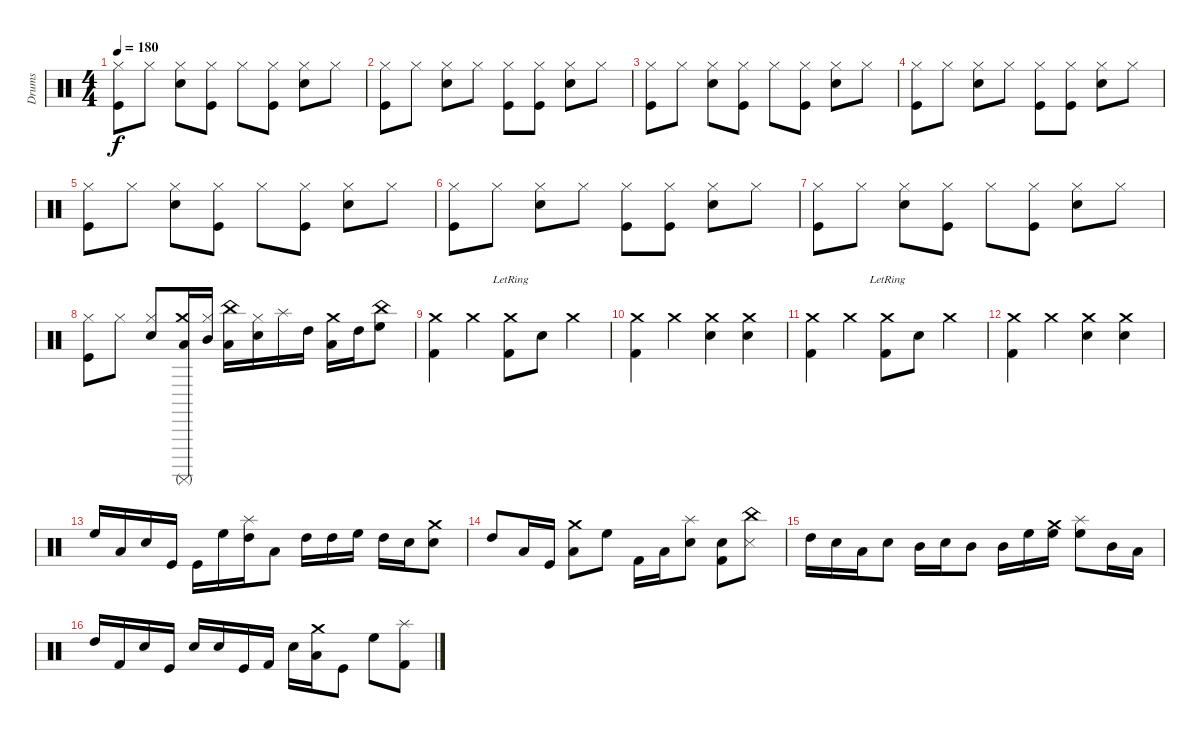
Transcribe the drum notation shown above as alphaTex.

\track ("Drums" "Drums") {instrument percussion}
\staff {score}
\articulation defaults
\ts (4 4)
\tempo 180
\clef neutral
\ks c
("Hi-Hat (closed)" "Kick (hit)").8{dy f} "Hi-Hat (closed)".8 ("Hi-Hat (closed)" "Snare (hit) 2").8 ("Hi-Hat (closed)" "Kick (hit)").8 "Hi-Hat (closed)".8 ("Hi-Hat (closed)" "Kick (hit)").8 ("Hi-Hat (closed)" "Snare (hit) 2").8 "Hi-Hat (closed)".8 |
("Hi-Hat (closed)" "Kick (hit)").8 "Hi-Hat (closed)".8 ("Hi-Hat (closed)" "Snare (hit) 2").8 "Hi-Hat (closed)".8 ("Hi-Hat (closed)" "Kick (hit)").8 ("Hi-Hat (closed)" "Kick (hit)").8 ("Hi-Hat (closed)" "Snare (hit) 2").8 "Hi-Hat (closed)".8 |
("Hi-Hat (closed)" "Kick (hit)").8 "Hi-Hat (closed)".8 ("Hi-Hat (closed)" "Snare (hit) 2").8 ("Hi-Hat (closed)" "Kick (hit)").8 "Hi-Hat (closed)".8 ("Hi-Hat (closed)" "Kick (hit)").8 ("Hi-Hat (closed)" "Snare (hit) 2").8 "Hi-Hat (closed)".8 |
("Hi-Hat (closed)" "Kick (hit)").8 "Hi-Hat (closed)".8 ("Hi-Hat (closed)" "Snare (hit) 2").8 "Hi-Hat (closed)".8 ("Hi-Hat (closed)" "Kick (hit)").8 ("Hi-Hat (closed)" "Kick (hit)").8 ("Hi-Hat (closed)" "Snare (hit) 2").8 "Hi-Hat (closed)".8 |
("Hi-Hat (closed)" "Kick (hit)").8 "Hi-Hat (closed)".8 ("Hi-Hat (closed)" "Snare (hit) 2").8 ("Hi-Hat (closed)" "Kick (hit)").8 "Hi-Hat (closed)".8 ("Hi-Hat (closed)" "Kick (hit)").8 ("Hi-Hat (closed)" "Snare (hit) 2").8 "Hi-Hat (closed)".8 |
("Hi-Hat (closed)" "Kick (hit)").8 "Hi-Hat (closed)".8 ("Hi-Hat (closed)" "Snare (hit) 2").8 "Hi-Hat (closed)".8 ("Hi-Hat (closed)" "Kick (hit)").8 ("Hi-Hat (closed)" "Kick (hit)").8 ("Hi-Hat (closed)" "Snare (hit) 2").8 "Hi-Hat (closed)".8 |
("Hi-Hat (closed)" "Kick (hit)").8 "Hi-Hat (closed)".8 ("Hi-Hat (closed)" "Snare (hit) 2").8 ("Hi-Hat (closed)" "Kick (hit)").8 "Hi-Hat (closed)".8 ("Hi-Hat (closed)" "Kick (hit)").8 ("Hi-Hat (closed)" "Snare (hit) 2").8 "Hi-Hat (closed)".8 |
("Hi-Hat (closed)" "Kick (hit)").8 "Hi-Hat (closed)".8 ("Hi-Hat (closed)" "Snare (hit) 2").8 ("Surdo (mute)" "Low Tom (hit)" "Crash medium (hit)").16 ("Hi-Hat (closed)" "Mid Tom (hit)").16 ("China (hit)" "Low Tom (hit)").16 ("Hi-Hat (closed)" "Electric Snare (hit)").16 "Splash (hit)".16 "High Tom (hit)".16 ("Crash medium (hit)" "Low Tom (hit)").16 "High Tom (hit)".16 ("High Floor Tom (hit)" "China (hit)").8 |
("Crash medium (hit)" "Kick (hit) 2").4 "Crash medium (hit)".4 ("Crash medium (hit)" "Kick (hit) 2"{lr}).8 "Snare (hit) 2".8 "Crash medium (hit)".4 |
("Crash medium (hit)" "Kick (hit) 2").4 "Crash medium (hit)".4 ("Crash medium (hit)" "Snare (hit) 2").4 ("Crash medium (hit)" "Snare (hit) 2").4 |
("Crash medium (hit)" "Kick (hit) 2").4 "Crash medium (hit)".4 ("Crash medium (hit)" "Kick (hit) 2"{lr}).8 "Snare (hit) 2".8 "Crash medium (hit)".4 |
("Crash medium (hit)" "Kick (hit) 2").4 "Crash medium (hit)".4 ("Crash medium (hit)" "Snare (hit) 2").4 ("Crash medium (hit)" "Snare (hit) 2").4 |
"High Floor Tom (hit)".16 "Low Tom (hit)".16 "Snare (hit) 2".16 "Kick (hit)".16 "Kick (hit)".16 "High Floor Tom (hit)".16 ("High Tom (hit)" "Splash (hit)").16 "Low Tom (hit)".8 "High Tom (hit)".16 "High Tom (hit)".16 "High Floor Tom (hit)".16 "High Tom (hit)".16 "Electric Snare (hit)".16 ("Electric Snare (hit)" "Crash medium (hit)").8 |
"High Tom (hit)".8 "Low Tom (hit)".16 "Kick (hit)".16 ("Low Floor Tom (hit)" "Crash medium (hit)").8 "High Floor Tom (hit)".8 "Kick (hit) 2".16 "Low Tom (hit)".16 ("Snare (hit) 2" "Splash (hit)").8 ("Electric Snare (hit)" "Kick (hit) 2").8 ("Snare (side stick) 3" "China (hit)").8 |
"High Tom (hit)".16 "Electric Snare (hit)".16 "Low Tom (hit)".16 "Electric Snare (hit)".8 "Mid Tom (hit)".16 "Electric Snare (hit)".16 "Mid Tom (hit)".8 "Mid Tom (hit)".16 "High Floor Tom (hit)".16 ("High Floor Tom (hit)" "Crash medium (hit)").16 ("High Floor Tom (hit)" "Splash (hit)").8 "Mid Tom (hit)".16 "Low Floor Tom (hit)".16 |
"High Tom (hit)".16 "Kick (hit) 2".16 "Hand Clap (hit)".16 "Kick (hit)".16 "Hand Clap (hit)".16 "Electric Snare (hit)".16 "Kick (hit)".16 "Kick (hit) 2".16 "Electric Snare (hit)".16 ("Low Floor Tom (hit)" "Crash medium (hit)").16 "Kick (hit)".8 "High Floor Tom (hit)".8 ("Kick (hit) 2" "Splash (hit)").8
